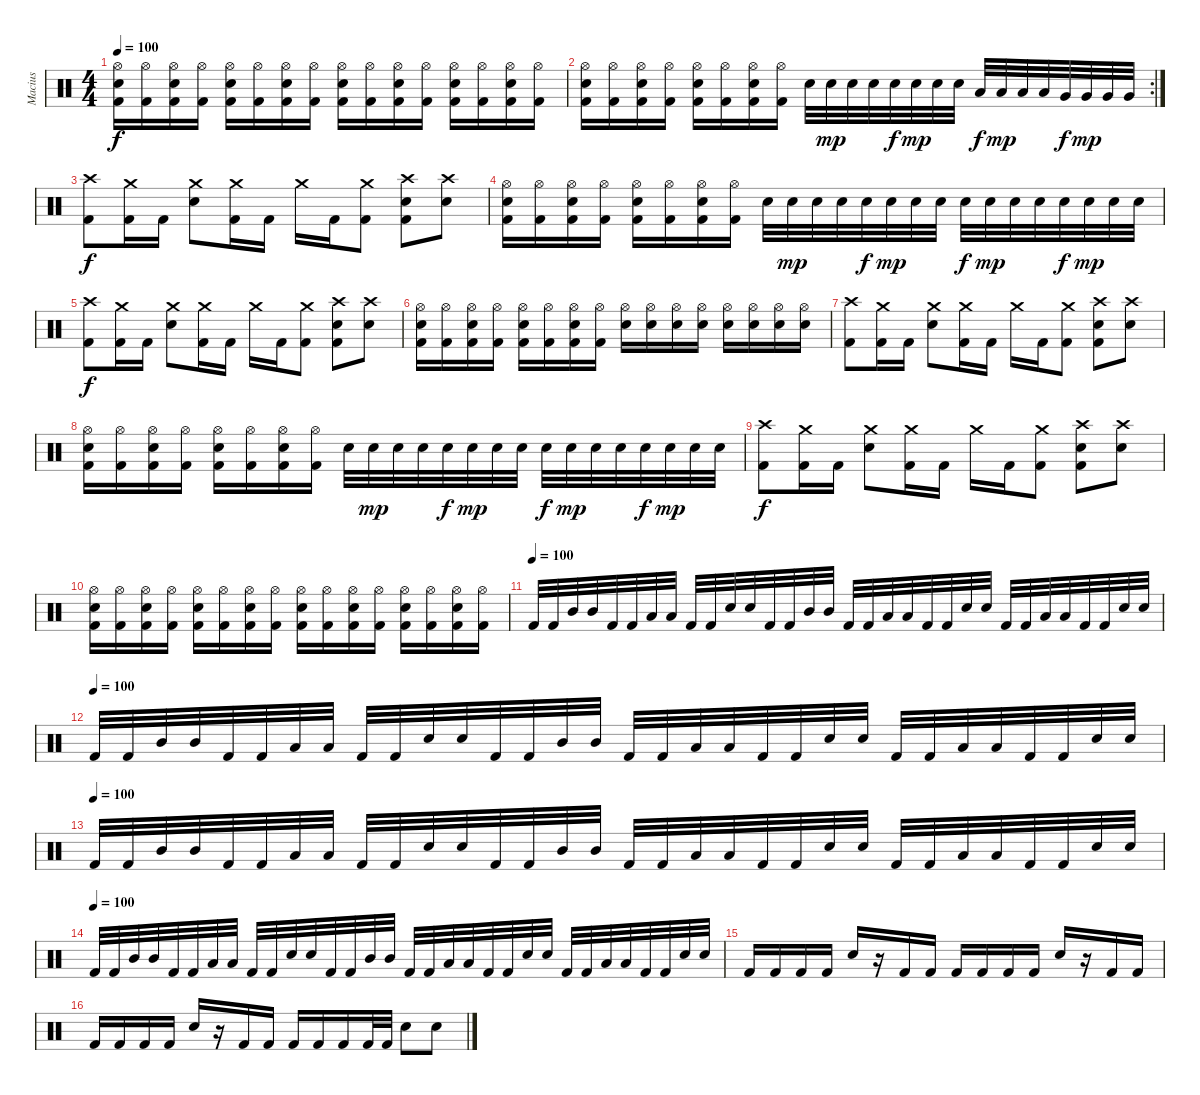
\track ("Macius" "Macius") {instrument percussion}
\staff {score}
\articulation defaults
\ts (4 4)
\tempo 100
\clef neutral
\ks c
("Hi-Hat (open)" "Electric Snare (hit)" "Kick (hit) 2").16{dy f} ("Hi-Hat (open)" "Kick (hit) 2").16 ("Hi-Hat (open)" "Electric Snare (hit)" "Kick (hit) 2").16 ("Hi-Hat (open)" "Kick (hit) 2").16 ("Hi-Hat (open)" "Electric Snare (hit)" "Kick (hit) 2").16 ("Hi-Hat (open)" "Kick (hit) 2").16 ("Hi-Hat (open)" "Electric Snare (hit)" "Kick (hit) 2").16 ("Hi-Hat (open)" "Kick (hit) 2").16 ("Hi-Hat (open)" "Electric Snare (hit)" "Kick (hit) 2").16 ("Hi-Hat (open)" "Kick (hit) 2").16 ("Hi-Hat (open)" "Electric Snare (hit)" "Kick (hit) 2").16 ("Hi-Hat (open)" "Kick (hit) 2").16 ("Hi-Hat (open)" "Electric Snare (hit)" "Kick (hit) 2").16 ("Hi-Hat (open)" "Kick (hit) 2").16 ("Hi-Hat (open)" "Electric Snare (hit)" "Kick (hit) 2").16 ("Hi-Hat (open)" "Kick (hit) 2").16 |
\rc 2
("Hi-Hat (open)" "Electric Snare (hit)" "Kick (hit) 2").16 ("Hi-Hat (open)" "Kick (hit) 2").16 ("Hi-Hat (open)" "Electric Snare (hit)" "Kick (hit) 2").16 ("Hi-Hat (open)" "Kick (hit) 2").16 ("Hi-Hat (open)" "Electric Snare (hit)" "Kick (hit) 2").16 ("Hi-Hat (open)" "Kick (hit) 2").16 ("Hi-Hat (open)" "Electric Snare (hit)" "Kick (hit) 2").16 ("Hi-Hat (open)" "Kick (hit) 2").16 "Electric Snare (hit)".32 "Electric Snare (hit)".32{dy mp} "Electric Snare (hit)".32 "Electric Snare (hit)".32 "Electric Snare (hit)".32{dy f} "Electric Snare (hit)".32{dy mp} "Electric Snare (hit)".32 "Electric Snare (hit)".32 "Low Tom (hit)".32{dy f} "Low Tom (hit)".32{dy mp} "Low Tom (hit)".32 "Low Tom (hit)".32 "Very Low Tom (hit)".32{dy f} "Very Low Tom (hit)".32{dy mp} "Very Low Tom (hit)".32 "Very Low Tom (hit)".32 |
("Crash high (hit)" "Kick (hit) 2").8{dy f} ("Crash medium (hit)" "Kick (hit) 2").16 "Kick (hit) 2".16 ("Crash medium (hit)" "Electric Snare (hit)").8 ("Crash medium (hit)" "Kick (hit) 2").16 "Kick (hit) 2".16 "Crash medium (hit)".16 "Kick (hit) 2".16 ("Crash medium (hit)" "Kick (hit) 2").8 ("Crash high (hit)" "Electric Snare (hit)" "Kick (hit) 2").8 ("Crash high (hit)" "Electric Snare (hit)").8 |
("Hi-Hat (open)" "Electric Snare (hit)" "Kick (hit) 2").16 ("Hi-Hat (open)" "Kick (hit) 2").16 ("Hi-Hat (open)" "Electric Snare (hit)" "Kick (hit) 2").16 ("Hi-Hat (open)" "Kick (hit) 2").16 ("Hi-Hat (open)" "Electric Snare (hit)" "Kick (hit) 2").16 ("Hi-Hat (open)" "Kick (hit) 2").16 ("Hi-Hat (open)" "Electric Snare (hit)" "Kick (hit) 2").16 ("Hi-Hat (open)" "Kick (hit) 2").16 "Electric Snare (hit)".32 "Electric Snare (hit)".32{dy mp} "Electric Snare (hit)".32 "Electric Snare (hit)".32 "Electric Snare (hit)".32{dy f} "Electric Snare (hit)".32{dy mp} "Electric Snare (hit)".32 "Electric Snare (hit)".32 "Electric Snare (hit)".32{dy f} "Electric Snare (hit)".32{dy mp} "Electric Snare (hit)".32 "Electric Snare (hit)".32 "Electric Snare (hit)".32{dy f} "Electric Snare (hit)".32{dy mp} "Electric Snare (hit)".32 "Electric Snare (hit)".32 |
("Crash high (hit)" "Kick (hit) 2").8{dy f} ("Crash medium (hit)" "Kick (hit) 2").16 "Kick (hit) 2".16 ("Crash medium (hit)" "Electric Snare (hit)").8 ("Crash medium (hit)" "Kick (hit) 2").16 "Kick (hit) 2".16 "Crash medium (hit)".16 "Kick (hit) 2".16 ("Crash medium (hit)" "Kick (hit) 2").8 ("Crash high (hit)" "Electric Snare (hit)" "Kick (hit) 2").8 ("Crash high (hit)" "Electric Snare (hit)").8 |
("Hi-Hat (open)" "Electric Snare (hit)" "Kick (hit) 2").16 ("Hi-Hat (open)" "Kick (hit) 2").16 ("Hi-Hat (open)" "Electric Snare (hit)" "Kick (hit) 2").16 ("Hi-Hat (open)" "Kick (hit) 2").16 ("Hi-Hat (open)" "Electric Snare (hit)" "Kick (hit) 2").16 ("Hi-Hat (open)" "Kick (hit) 2").16 ("Hi-Hat (open)" "Electric Snare (hit)" "Kick (hit) 2").16 ("Hi-Hat (open)" "Kick (hit) 2").16 ("Hi-Hat (open)" "Electric Snare (hit)").16 ("Hi-Hat (open)" "Electric Snare (hit)").16 ("Hi-Hat (open)" "Electric Snare (hit)").16 ("Hi-Hat (open)" "Electric Snare (hit)").16 ("Hi-Hat (open)" "Electric Snare (hit)").16 ("Hi-Hat (open)" "Electric Snare (hit)").16 ("Hi-Hat (open)" "Electric Snare (hit)").16 ("Hi-Hat (open)" "Electric Snare (hit)").16 |
("Crash high (hit)" "Kick (hit) 2").8 ("Crash medium (hit)" "Kick (hit) 2").16 "Kick (hit) 2".16 ("Crash medium (hit)" "Electric Snare (hit)").8 ("Crash medium (hit)" "Kick (hit) 2").16 "Kick (hit) 2".16 "Crash medium (hit)".16 "Kick (hit) 2".16 ("Crash medium (hit)" "Kick (hit) 2").8 ("Crash high (hit)" "Electric Snare (hit)" "Kick (hit) 2").8 ("Crash high (hit)" "Electric Snare (hit)").8 |
("Hi-Hat (open)" "Electric Snare (hit)" "Kick (hit) 2").16 ("Hi-Hat (open)" "Kick (hit) 2").16 ("Hi-Hat (open)" "Electric Snare (hit)" "Kick (hit) 2").16 ("Hi-Hat (open)" "Kick (hit) 2").16 ("Hi-Hat (open)" "Electric Snare (hit)" "Kick (hit) 2").16 ("Hi-Hat (open)" "Kick (hit) 2").16 ("Hi-Hat (open)" "Electric Snare (hit)" "Kick (hit) 2").16 ("Hi-Hat (open)" "Kick (hit) 2").16 "Electric Snare (hit)".32 "Electric Snare (hit)".32{dy mp} "Electric Snare (hit)".32 "Electric Snare (hit)".32 "Electric Snare (hit)".32{dy f} "Electric Snare (hit)".32{dy mp} "Electric Snare (hit)".32 "Electric Snare (hit)".32 "Electric Snare (hit)".32{dy f} "Electric Snare (hit)".32{dy mp} "Electric Snare (hit)".32 "Electric Snare (hit)".32 "Electric Snare (hit)".32{dy f} "Electric Snare (hit)".32{dy mp} "Electric Snare (hit)".32 "Electric Snare (hit)".32 |
("Crash high (hit)" "Kick (hit) 2").8{dy f} ("Crash medium (hit)" "Kick (hit) 2").16 "Kick (hit) 2".16 ("Crash medium (hit)" "Electric Snare (hit)").8 ("Crash medium (hit)" "Kick (hit) 2").16 "Kick (hit) 2".16 "Crash medium (hit)".16 "Kick (hit) 2".16 ("Crash medium (hit)" "Kick (hit) 2").8 ("Crash high (hit)" "Electric Snare (hit)" "Kick (hit) 2").8 ("Crash high (hit)" "Electric Snare (hit)").8 |
("Hi-Hat (open)" "Electric Snare (hit)" "Kick (hit) 2").16 ("Hi-Hat (open)" "Kick (hit) 2").16 ("Hi-Hat (open)" "Electric Snare (hit)" "Kick (hit) 2").16 ("Hi-Hat (open)" "Kick (hit) 2").16 ("Hi-Hat (open)" "Electric Snare (hit)" "Kick (hit) 2").16 ("Hi-Hat (open)" "Kick (hit) 2").16 ("Hi-Hat (open)" "Electric Snare (hit)" "Kick (hit) 2").16 ("Hi-Hat (open)" "Kick (hit) 2").16 ("Hi-Hat (open)" "Electric Snare (hit)" "Kick (hit) 2").16 ("Hi-Hat (open)" "Kick (hit) 2").16 ("Hi-Hat (open)" "Electric Snare (hit)" "Kick (hit) 2").16 ("Hi-Hat (open)" "Kick (hit) 2").16 ("Hi-Hat (open)" "Electric Snare (hit)" "Kick (hit) 2").16 ("Hi-Hat (open)" "Kick (hit) 2").16 ("Hi-Hat (open)" "Electric Snare (hit)" "Kick (hit) 2").16 ("Hi-Hat (open)" "Kick (hit) 2").16 |
\tempo (100)
"Kick (hit) 2".32 "Kick (hit) 2".32 "Mid Tom (hit)".32 "Mid Tom (hit)".32 "Kick (hit) 2".32 "Kick (hit) 2".32 "Low Tom (hit)".32 "Low Tom (hit)".32 "Kick (hit) 2".32 "Kick (hit) 2".32 "Electric Snare (hit)".32 "Electric Snare (hit)".32 "Kick (hit) 2".32 "Kick (hit) 2".32 "Mid Tom (hit)".32 "Mid Tom (hit)".32 "Kick (hit) 2".32 "Kick (hit) 2".32 "Low Tom (hit)".32 "Low Tom (hit)".32 "Kick (hit) 2".32 "Kick (hit) 2".32 "Electric Snare (hit)".32 "Electric Snare (hit)".32 "Kick (hit) 2".32 "Kick (hit) 2".32 "Low Tom (hit)".32 "Low Tom (hit)".32 "Kick (hit) 2".32 "Kick (hit) 2".32 "Electric Snare (hit)".32 "Electric Snare (hit)".32 |
\tempo (100)
"Kick (hit) 2".32 "Kick (hit) 2".32 "Mid Tom (hit)".32 "Mid Tom (hit)".32 "Kick (hit) 2".32 "Kick (hit) 2".32 "Low Tom (hit)".32 "Low Tom (hit)".32 "Kick (hit) 2".32 "Kick (hit) 2".32 "Electric Snare (hit)".32 "Electric Snare (hit)".32 "Kick (hit) 2".32 "Kick (hit) 2".32 "Mid Tom (hit)".32 "Mid Tom (hit)".32 "Kick (hit) 2".32 "Kick (hit) 2".32 "Low Tom (hit)".32 "Low Tom (hit)".32 "Kick (hit) 2".32 "Kick (hit) 2".32 "Electric Snare (hit)".32 "Electric Snare (hit)".32 "Kick (hit) 2".32 "Kick (hit) 2".32 "Low Tom (hit)".32 "Low Tom (hit)".32 "Kick (hit) 2".32 "Kick (hit) 2".32 "Electric Snare (hit)".32 "Electric Snare (hit)".32 |
\tempo (100)
"Kick (hit) 2".32 "Kick (hit) 2".32 "Mid Tom (hit)".32 "Mid Tom (hit)".32 "Kick (hit) 2".32 "Kick (hit) 2".32 "Low Tom (hit)".32 "Low Tom (hit)".32 "Kick (hit) 2".32 "Kick (hit) 2".32 "Electric Snare (hit)".32 "Electric Snare (hit)".32 "Kick (hit) 2".32 "Kick (hit) 2".32 "Mid Tom (hit)".32 "Mid Tom (hit)".32 "Kick (hit) 2".32 "Kick (hit) 2".32 "Low Tom (hit)".32 "Low Tom (hit)".32 "Kick (hit) 2".32 "Kick (hit) 2".32 "Electric Snare (hit)".32 "Electric Snare (hit)".32 "Kick (hit) 2".32 "Kick (hit) 2".32 "Low Tom (hit)".32 "Low Tom (hit)".32 "Kick (hit) 2".32 "Kick (hit) 2".32 "Electric Snare (hit)".32 "Electric Snare (hit)".32 |
\tempo (100)
"Kick (hit) 2".32 "Kick (hit) 2".32 "Mid Tom (hit)".32 "Mid Tom (hit)".32 "Kick (hit) 2".32 "Kick (hit) 2".32 "Low Tom (hit)".32 "Low Tom (hit)".32 "Kick (hit) 2".32 "Kick (hit) 2".32 "Electric Snare (hit)".32 "Electric Snare (hit)".32 "Kick (hit) 2".32 "Kick (hit) 2".32 "Mid Tom (hit)".32 "Mid Tom (hit)".32 "Kick (hit) 2".32 "Kick (hit) 2".32 "Low Tom (hit)".32 "Low Tom (hit)".32 "Kick (hit) 2".32 "Kick (hit) 2".32 "Electric Snare (hit)".32 "Electric Snare (hit)".32 "Kick (hit) 2".32 "Kick (hit) 2".32 "Low Tom (hit)".32 "Low Tom (hit)".32 "Kick (hit) 2".32 "Kick (hit) 2".32 "Electric Snare (hit)".32 "Electric Snare (hit)".32 |
"Kick (hit) 2".16 "Kick (hit) 2".16 "Kick (hit) 2".16 "Kick (hit) 2".16 "Electric Snare (hit)".16 r.16 "Kick (hit) 2".16 "Kick (hit) 2".16 "Kick (hit) 2".16 "Kick (hit) 2".16 "Kick (hit) 2".16 "Kick (hit) 2".16 "Electric Snare (hit)".16 r.16 "Kick (hit) 2".16 "Kick (hit) 2".16 |
"Kick (hit) 2".16 "Kick (hit) 2".16 "Kick (hit) 2".16 "Kick (hit) 2".16 "Electric Snare (hit)".16 r.16 "Kick (hit) 2".16 "Kick (hit) 2".16 "Kick (hit) 2".16 "Kick (hit) 2".16 "Kick (hit) 2".16 "Kick (hit) 2".32 "Kick (hit) 2".32 "Electric Snare (hit)".8 "Electric Snare (hit)".8
